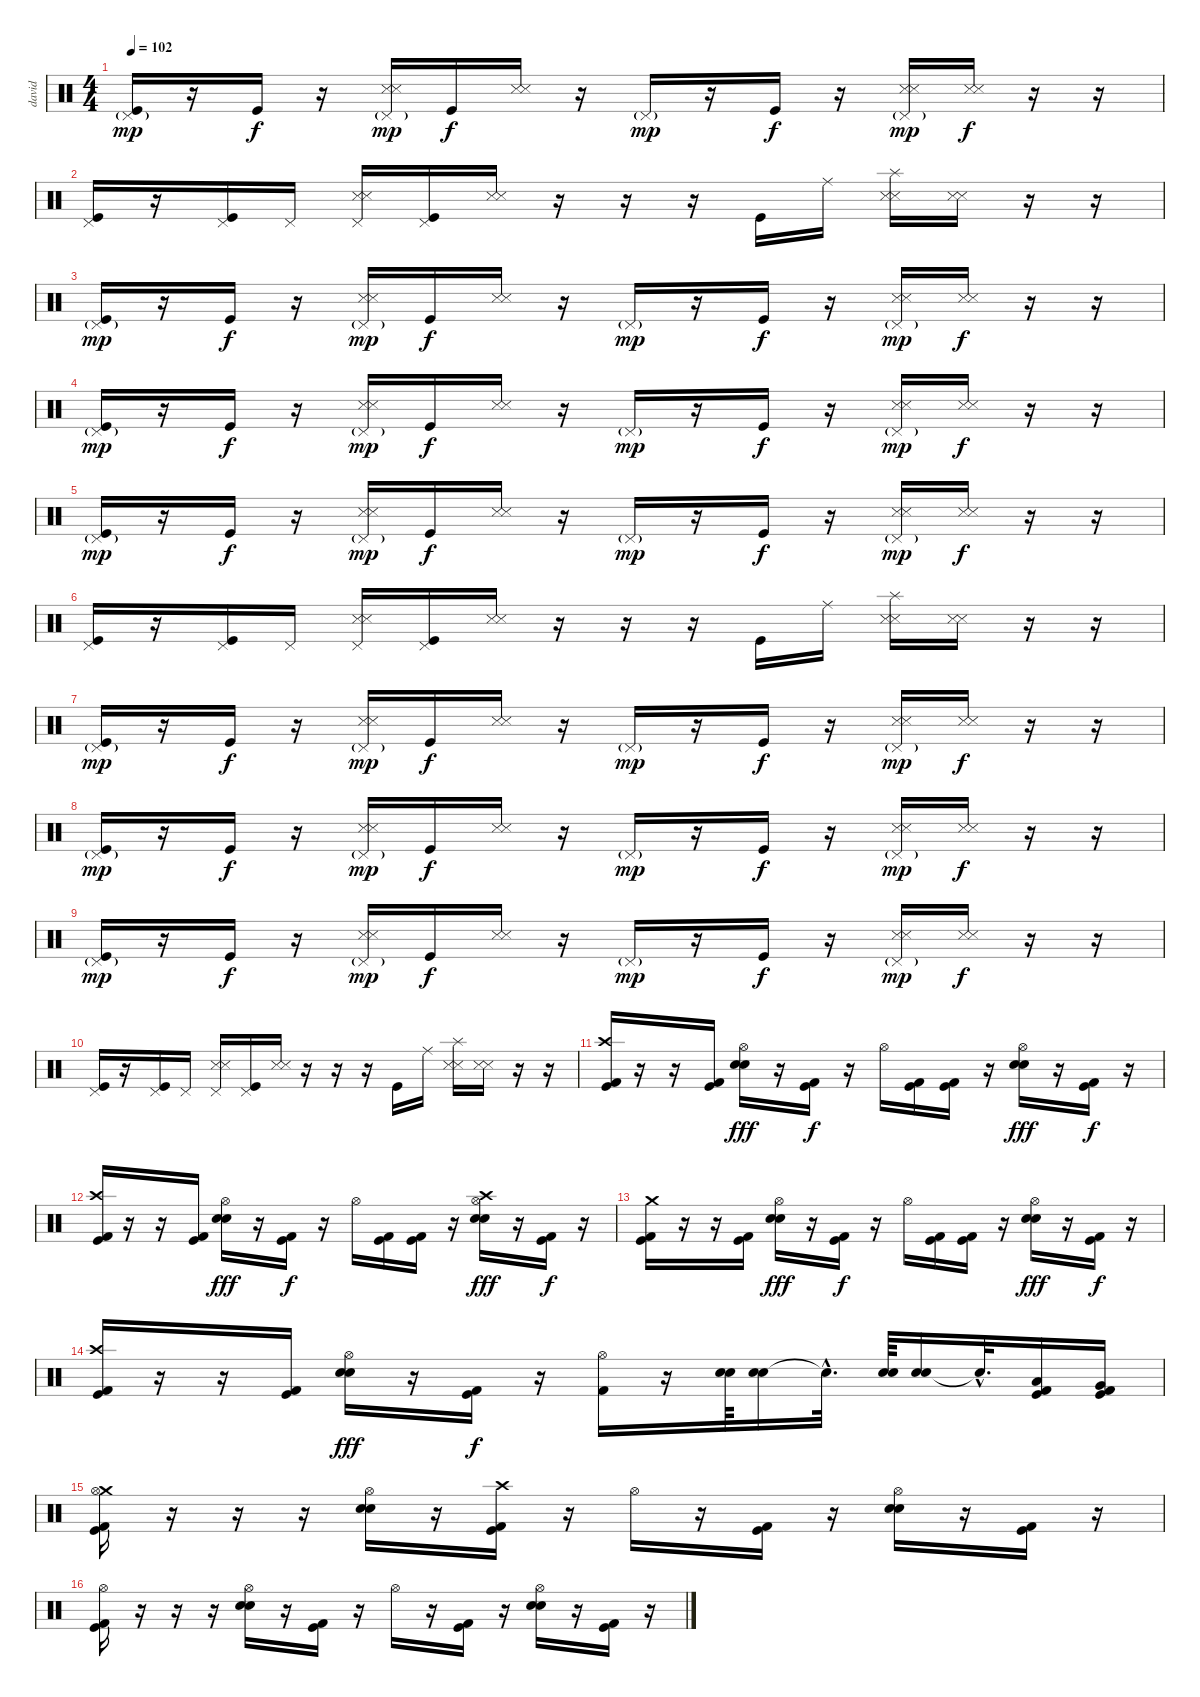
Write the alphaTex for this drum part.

\track ("david" "david") {instrument percussion}
\staff {score}
\articulation defaults
\ts (4 4)
\tempo 102
\clef neutral
\ks c
("Pedal Hi-Hat (hit)"{g} "Kick (hit)").16{dy mp} r.16 "Kick (hit)".16{dy f} r.16 ("Pedal Hi-Hat (hit)"{g} "Metronome (hit)" "Snare (side stick) 3").16{dy mp} "Kick (hit)".16{dy f} ("Metronome (hit)" "Snare (side stick) 3").16 r.16 "Pedal Hi-Hat (hit)"{g}.16{dy mp} r.16 "Kick (hit)".16{dy f} r.16 ("Pedal Hi-Hat (hit)"{g} "Metronome (hit)" "Snare (side stick) 3").16{dy mp} ("Metronome (hit)" "Snare (side stick) 3").16{dy f} r.16 r.16 |
("Pedal Hi-Hat (hit)" "Kick (hit)").16 r.16 ("Pedal Hi-Hat (hit)" "Kick (hit)").16 "Pedal Hi-Hat (hit)".16 ("Pedal Hi-Hat (hit)" "Metronome (hit)" "Snare (side stick) 3").16 ("Pedal Hi-Hat (hit)" "Kick (hit)").16 ("Metronome (hit)" "Snare (side stick) 3").16 r.16 r.16 r.16 "Kick (hit)".16 "Ride (middle)".16 ("Splash (hit)" "Metronome (hit)" "Snare (side stick) 3").16 ("Metronome (hit)" "Snare (side stick) 3").16 r.16 r.16 |
("Pedal Hi-Hat (hit)"{g} "Kick (hit)").16{dy mp} r.16 "Kick (hit)".16{dy f} r.16 ("Pedal Hi-Hat (hit)"{g} "Metronome (hit)" "Snare (side stick) 3").16{dy mp} "Kick (hit)".16{dy f} ("Metronome (hit)" "Snare (side stick) 3").16 r.16 "Pedal Hi-Hat (hit)"{g}.16{dy mp} r.16 "Kick (hit)".16{dy f} r.16 ("Pedal Hi-Hat (hit)"{g} "Metronome (hit)" "Snare (side stick) 3").16{dy mp} ("Metronome (hit)" "Snare (side stick) 3").16{dy f} r.16 r.16 |
("Pedal Hi-Hat (hit)"{g} "Kick (hit)").16{dy mp} r.16 "Kick (hit)".16{dy f} r.16 ("Pedal Hi-Hat (hit)"{g} "Metronome (hit)" "Snare (side stick) 3").16{dy mp} "Kick (hit)".16{dy f} ("Metronome (hit)" "Snare (side stick) 3").16 r.16 "Pedal Hi-Hat (hit)"{g}.16{dy mp} r.16 "Kick (hit)".16{dy f} r.16 ("Pedal Hi-Hat (hit)"{g} "Metronome (hit)" "Snare (side stick) 3").16{dy mp} ("Metronome (hit)" "Snare (side stick) 3").16{dy f} r.16 r.16 |
("Pedal Hi-Hat (hit)"{g} "Kick (hit)").16{dy mp} r.16 "Kick (hit)".16{dy f} r.16 ("Pedal Hi-Hat (hit)"{g} "Metronome (hit)" "Snare (side stick) 3").16{dy mp} "Kick (hit)".16{dy f} ("Metronome (hit)" "Snare (side stick) 3").16 r.16 "Pedal Hi-Hat (hit)"{g}.16{dy mp} r.16 "Kick (hit)".16{dy f} r.16 ("Pedal Hi-Hat (hit)"{g} "Metronome (hit)" "Snare (side stick) 3").16{dy mp} ("Metronome (hit)" "Snare (side stick) 3").16{dy f} r.16 r.16 |
("Pedal Hi-Hat (hit)" "Kick (hit)").16 r.16 ("Pedal Hi-Hat (hit)" "Kick (hit)").16 "Pedal Hi-Hat (hit)".16 ("Pedal Hi-Hat (hit)" "Metronome (hit)" "Snare (side stick) 3").16 ("Pedal Hi-Hat (hit)" "Kick (hit)").16 ("Metronome (hit)" "Snare (side stick) 3").16 r.16 r.16 r.16 "Kick (hit)".16 "Ride (middle)".16 ("Splash (hit)" "Metronome (hit)" "Snare (side stick) 3").16 ("Metronome (hit)" "Snare (side stick) 3").16 r.16 r.16 |
("Pedal Hi-Hat (hit)"{g} "Kick (hit)").16{dy mp} r.16 "Kick (hit)".16{dy f} r.16 ("Pedal Hi-Hat (hit)"{g} "Metronome (hit)" "Snare (side stick) 3").16{dy mp} "Kick (hit)".16{dy f} ("Metronome (hit)" "Snare (side stick) 3").16 r.16 "Pedal Hi-Hat (hit)"{g}.16{dy mp} r.16 "Kick (hit)".16{dy f} r.16 ("Pedal Hi-Hat (hit)"{g} "Metronome (hit)" "Snare (side stick) 3").16{dy mp} ("Metronome (hit)" "Snare (side stick) 3").16{dy f} r.16 r.16 |
("Pedal Hi-Hat (hit)"{g} "Kick (hit)").16{dy mp} r.16 "Kick (hit)".16{dy f} r.16 ("Pedal Hi-Hat (hit)"{g} "Metronome (hit)" "Snare (side stick) 3").16{dy mp} "Kick (hit)".16{dy f} ("Metronome (hit)" "Snare (side stick) 3").16 r.16 "Pedal Hi-Hat (hit)"{g}.16{dy mp} r.16 "Kick (hit)".16{dy f} r.16 ("Pedal Hi-Hat (hit)"{g} "Metronome (hit)" "Snare (side stick) 3").16{dy mp} ("Metronome (hit)" "Snare (side stick) 3").16{dy f} r.16 r.16 |
("Pedal Hi-Hat (hit)"{g} "Kick (hit)").16{dy mp} r.16 "Kick (hit)".16{dy f} r.16 ("Pedal Hi-Hat (hit)"{g} "Metronome (hit)" "Snare (side stick) 3").16{dy mp} "Kick (hit)".16{dy f} ("Metronome (hit)" "Snare (side stick) 3").16 r.16 "Pedal Hi-Hat (hit)"{g}.16{dy mp} r.16 "Kick (hit)".16{dy f} r.16 ("Pedal Hi-Hat (hit)"{g} "Metronome (hit)" "Snare (side stick) 3").16{dy mp} ("Metronome (hit)" "Snare (side stick) 3").16{dy f} r.16 r.16 |
("Pedal Hi-Hat (hit)" "Kick (hit)").16 r.16 ("Pedal Hi-Hat (hit)" "Kick (hit)").16 "Pedal Hi-Hat (hit)".16 ("Pedal Hi-Hat (hit)" "Metronome (hit)" "Snare (side stick) 3").16 ("Pedal Hi-Hat (hit)" "Kick (hit)").16 ("Metronome (hit)" "Snare (side stick) 3").16 r.16 r.16 r.16 "Kick (hit)".16 "Ride (middle)".16 ("Splash (hit)" "Metronome (hit)" "Snare (side stick) 3").16 ("Metronome (hit)" "Snare (side stick) 3").16 r.16 r.16 |
("Crash high (hit)" "Kick (hit) 2" "Kick (hit)").16 r.16 r.16 ("Kick (hit) 2" "Kick (hit)").16 ("Hi-Hat (open)" "Electric Snare (hit)" "Snare (hit) 2").16{dy fff} r.16 ("Kick (hit) 2" "Kick (hit)").16{dy f} r.16 "Hi-Hat (open)".16 ("Kick (hit) 2" "Kick (hit)").16 ("Kick (hit) 2" "Kick (hit)").16 r.16 ("Hi-Hat (open)" "Electric Snare (hit)" "Snare (hit) 2").16{dy fff} r.16 ("Kick (hit) 2" "Kick (hit)").16{dy f} r.16 |
("Crash high (hit)" "Kick (hit) 2" "Kick (hit)").16 r.16 r.16 ("Kick (hit) 2" "Kick (hit)").16 ("Hi-Hat (open)" "Electric Snare (hit)" "Snare (hit) 2").16{dy fff} r.16 ("Kick (hit) 2" "Kick (hit)").16{dy f} r.16 "Hi-Hat (open)".16 ("Kick (hit) 2" "Kick (hit)").16 ("Kick (hit) 2" "Kick (hit)").16 r.16 ("Hi-Hat (open)" "Crash high (hit)" "Electric Snare (hit)" "Snare (hit) 2").16{dy fff} r.16 ("Kick (hit) 2" "Kick (hit)").16{dy f} r.16 |
("Crash medium (hit)" "Kick (hit) 2" "Kick (hit)").16 r.16 r.16 ("Kick (hit) 2" "Kick (hit)").16 ("Hi-Hat (open)" "Electric Snare (hit)" "Snare (hit) 2").16{dy fff} r.16 ("Kick (hit) 2" "Kick (hit)").16{dy f} r.16 "Hi-Hat (open)".16 ("Kick (hit) 2" "Kick (hit)").16 ("Kick (hit) 2" "Kick (hit)").16 r.16 ("Hi-Hat (open)" "Electric Snare (hit)" "Snare (hit) 2").16{dy fff} r.16 ("Kick (hit) 2" "Kick (hit)").16{dy f} r.16 |
("Crash high (hit)" "Kick (hit) 2" "Kick (hit)").16 r.16 r.16 ("Kick (hit) 2" "Kick (hit)").16 ("Hi-Hat (open)" "Electric Snare (hit)" "Snare (hit) 2").16{dy fff} r.16 ("Kick (hit) 2" "Kick (hit)").16{dy f} r.16 ("Hi-Hat (open)" "Kick (hit) 2").16 r.16 ("Electric Snare (hit)" "Snare (hit) 2").64 ("Electric Snare (hit)" "Snare (hit) 2").16 "Electric Snare (hit)"{hac t}.32{d} ("Electric Snare (hit)" "Snare (hit) 2").64 ("Electric Snare (hit)" "Snare (hit) 2").16 "Snare (hit)"{hac t}.32{d} ("Low Tom (hit)" "Kick (hit) 2" "Kick (hit)").16 ("Very Low Tom (hit)" "Kick (hit) 2" "Kick (hit)").16 |
("Crash medium (hit)" "Hi-Hat (open)" "Kick (hit) 2" "Kick (hit)").16 r.16 r.16 r.16 ("Hi-Hat (open)" "Electric Snare (hit)" "Snare (hit) 2").16 r.16 ("Crash high (hit)" "Kick (hit) 2" "Kick (hit)").16 r.16 "Hi-Hat (open)".16 r.16 ("Kick (hit) 2" "Kick (hit)").16 r.16 ("Hi-Hat (open)" "Electric Snare (hit)" "Snare (hit) 2").16 r.16 ("Kick (hit) 2" "Kick (hit)").16 r.16 |
("Hi-Hat (open)" "Kick (hit) 2" "Kick (hit)").16 r.16 r.16 r.16 ("Hi-Hat (open)" "Electric Snare (hit)" "Snare (hit) 2").16 r.16 ("Kick (hit) 2" "Kick (hit)").16 r.16 "Hi-Hat (open)".16 r.16 ("Kick (hit) 2" "Kick (hit)").16 r.16 ("Hi-Hat (open)" "Electric Snare (hit)" "Snare (hit) 2").16 r.16 ("Kick (hit) 2" "Kick (hit)").16 r.16
